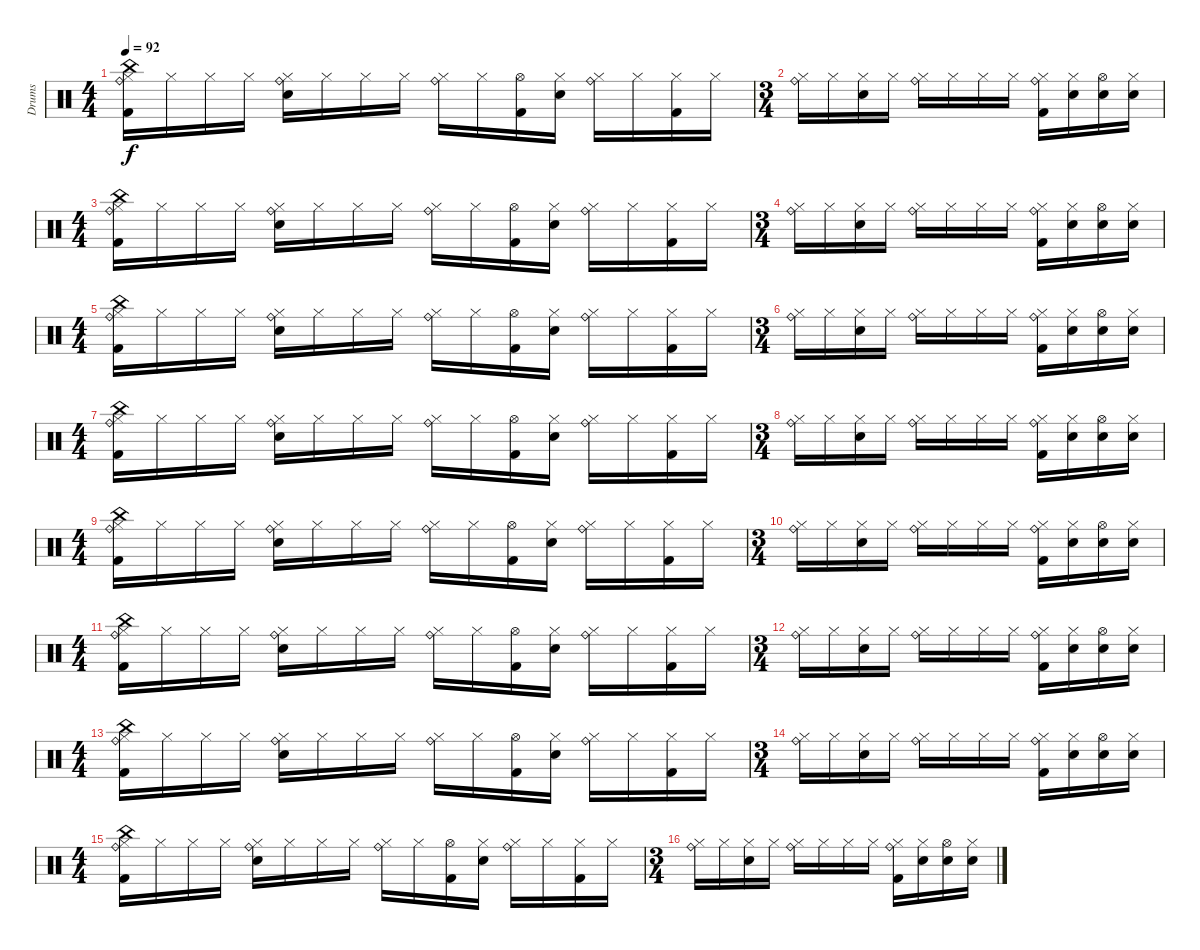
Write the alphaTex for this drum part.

\track ("Drums" "Drums") {instrument percussion}
\staff {score}
\articulation defaults
\ts (4 4)
\tempo 92
\clef neutral
\ks c
("Ride (bell)" "China (hit)" "Hi-Hat (closed)" "Kick (hit) 2").16{dy f} "Hi-Hat (closed)".16 "Hi-Hat (closed)".16 "Hi-Hat (closed)".16 ("Ride (bell)" "Hi-Hat (closed)" "Snare (hit) 2").16 "Hi-Hat (closed)".16 "Hi-Hat (closed)".16 "Hi-Hat (closed)".16 ("Ride (bell)" "Hi-Hat (closed)").16 "Hi-Hat (closed)".16 ("Hi-Hat (open)" "Kick (hit) 2").16 ("Hi-Hat (closed)" "Snare (hit) 2").16 ("Ride (bell)" "Hi-Hat (closed)").16 "Hi-Hat (closed)".16 ("Hi-Hat (closed)" "Kick (hit) 2").16 "Hi-Hat (closed)".16 |
\ts (3 4)
("Ride (bell)" "Hi-Hat (closed)").16 "Hi-Hat (closed)".16 ("Hi-Hat (closed)" "Snare (hit) 2").16 "Hi-Hat (closed)".16 ("Ride (bell)" "Hi-Hat (closed)").16 "Hi-Hat (closed)".16 "Hi-Hat (closed)".16 "Hi-Hat (closed)".16 ("Ride (bell)" "Hi-Hat (closed)" "Kick (hit) 2").16 ("Hi-Hat (closed)" "Snare (hit) 2").16 ("Hi-Hat (open)" "Snare (hit) 2").16 ("Hi-Hat (closed)" "Snare (hit) 2").16 |
\ts (4 4)
("Ride (bell)" "China (hit)" "Hi-Hat (closed)" "Kick (hit) 2").16 "Hi-Hat (closed)".16 "Hi-Hat (closed)".16 "Hi-Hat (closed)".16 ("Ride (bell)" "Hi-Hat (closed)" "Snare (hit) 2").16 "Hi-Hat (closed)".16 "Hi-Hat (closed)".16 "Hi-Hat (closed)".16 ("Ride (bell)" "Hi-Hat (closed)").16 "Hi-Hat (closed)".16 ("Hi-Hat (open)" "Kick (hit) 2").16 ("Hi-Hat (closed)" "Snare (hit) 2").16 ("Ride (bell)" "Hi-Hat (closed)").16 "Hi-Hat (closed)".16 ("Hi-Hat (closed)" "Kick (hit) 2").16 "Hi-Hat (closed)".16 |
\ts (3 4)
("Ride (bell)" "Hi-Hat (closed)").16 "Hi-Hat (closed)".16 ("Hi-Hat (closed)" "Snare (hit) 2").16 "Hi-Hat (closed)".16 ("Ride (bell)" "Hi-Hat (closed)").16 "Hi-Hat (closed)".16 "Hi-Hat (closed)".16 "Hi-Hat (closed)".16 ("Ride (bell)" "Hi-Hat (closed)" "Kick (hit) 2").16 ("Hi-Hat (closed)" "Snare (hit) 2").16 ("Hi-Hat (open)" "Snare (hit) 2").16 ("Hi-Hat (closed)" "Snare (hit) 2").16 |
\ts (4 4)
("Ride (bell)" "China (hit)" "Hi-Hat (closed)" "Kick (hit) 2").16 "Hi-Hat (closed)".16 "Hi-Hat (closed)".16 "Hi-Hat (closed)".16 ("Ride (bell)" "Hi-Hat (closed)" "Snare (hit) 2").16 "Hi-Hat (closed)".16 "Hi-Hat (closed)".16 "Hi-Hat (closed)".16 ("Ride (bell)" "Hi-Hat (closed)").16 "Hi-Hat (closed)".16 ("Hi-Hat (open)" "Kick (hit) 2").16 ("Hi-Hat (closed)" "Snare (hit) 2").16 ("Ride (bell)" "Hi-Hat (closed)").16 "Hi-Hat (closed)".16 ("Hi-Hat (closed)" "Kick (hit) 2").16 "Hi-Hat (closed)".16 |
\ts (3 4)
("Ride (bell)" "Hi-Hat (closed)").16 "Hi-Hat (closed)".16 ("Hi-Hat (closed)" "Snare (hit) 2").16 "Hi-Hat (closed)".16 ("Ride (bell)" "Hi-Hat (closed)").16 "Hi-Hat (closed)".16 "Hi-Hat (closed)".16 "Hi-Hat (closed)".16 ("Ride (bell)" "Hi-Hat (closed)" "Kick (hit) 2").16 ("Hi-Hat (closed)" "Snare (hit) 2").16 ("Hi-Hat (open)" "Snare (hit) 2").16 ("Hi-Hat (closed)" "Snare (hit) 2").16 |
\ts (4 4)
("Ride (bell)" "China (hit)" "Hi-Hat (closed)" "Kick (hit) 2").16 "Hi-Hat (closed)".16 "Hi-Hat (closed)".16 "Hi-Hat (closed)".16 ("Ride (bell)" "Hi-Hat (closed)" "Snare (hit) 2").16 "Hi-Hat (closed)".16 "Hi-Hat (closed)".16 "Hi-Hat (closed)".16 ("Ride (bell)" "Hi-Hat (closed)").16 "Hi-Hat (closed)".16 ("Hi-Hat (open)" "Kick (hit) 2").16 ("Hi-Hat (closed)" "Snare (hit) 2").16 ("Ride (bell)" "Hi-Hat (closed)").16 "Hi-Hat (closed)".16 ("Hi-Hat (closed)" "Kick (hit) 2").16 "Hi-Hat (closed)".16 |
\ts (3 4)
("Ride (bell)" "Hi-Hat (closed)").16 "Hi-Hat (closed)".16 ("Hi-Hat (closed)" "Snare (hit) 2").16 "Hi-Hat (closed)".16 ("Ride (bell)" "Hi-Hat (closed)").16 "Hi-Hat (closed)".16 "Hi-Hat (closed)".16 "Hi-Hat (closed)".16 ("Ride (bell)" "Hi-Hat (closed)" "Kick (hit) 2").16 ("Hi-Hat (closed)" "Snare (hit) 2").16 ("Hi-Hat (open)" "Snare (hit) 2").16 ("Hi-Hat (closed)" "Snare (hit) 2").16 |
\ts (4 4)
("Ride (bell)" "China (hit)" "Hi-Hat (closed)" "Kick (hit) 2").16 "Hi-Hat (closed)".16 "Hi-Hat (closed)".16 "Hi-Hat (closed)".16 ("Ride (bell)" "Hi-Hat (closed)" "Snare (hit) 2").16 "Hi-Hat (closed)".16 "Hi-Hat (closed)".16 "Hi-Hat (closed)".16 ("Ride (bell)" "Hi-Hat (closed)").16 "Hi-Hat (closed)".16 ("Hi-Hat (open)" "Kick (hit) 2").16 ("Hi-Hat (closed)" "Snare (hit) 2").16 ("Ride (bell)" "Hi-Hat (closed)").16 "Hi-Hat (closed)".16 ("Hi-Hat (closed)" "Kick (hit) 2").16 "Hi-Hat (closed)".16 |
\ts (3 4)
("Ride (bell)" "Hi-Hat (closed)").16 "Hi-Hat (closed)".16 ("Hi-Hat (closed)" "Snare (hit) 2").16 "Hi-Hat (closed)".16 ("Ride (bell)" "Hi-Hat (closed)").16 "Hi-Hat (closed)".16 "Hi-Hat (closed)".16 "Hi-Hat (closed)".16 ("Ride (bell)" "Hi-Hat (closed)" "Kick (hit) 2").16 ("Hi-Hat (closed)" "Snare (hit) 2").16 ("Hi-Hat (open)" "Snare (hit) 2").16 ("Hi-Hat (closed)" "Snare (hit) 2").16 |
\ts (4 4)
("Ride (bell)" "China (hit)" "Hi-Hat (closed)" "Kick (hit) 2").16 "Hi-Hat (closed)".16 "Hi-Hat (closed)".16 "Hi-Hat (closed)".16 ("Ride (bell)" "Hi-Hat (closed)" "Snare (hit) 2").16 "Hi-Hat (closed)".16 "Hi-Hat (closed)".16 "Hi-Hat (closed)".16 ("Ride (bell)" "Hi-Hat (closed)").16 "Hi-Hat (closed)".16 ("Hi-Hat (open)" "Kick (hit) 2").16 ("Hi-Hat (closed)" "Snare (hit) 2").16 ("Ride (bell)" "Hi-Hat (closed)").16 "Hi-Hat (closed)".16 ("Hi-Hat (closed)" "Kick (hit) 2").16 "Hi-Hat (closed)".16 |
\ts (3 4)
("Ride (bell)" "Hi-Hat (closed)").16 "Hi-Hat (closed)".16 ("Hi-Hat (closed)" "Snare (hit) 2").16 "Hi-Hat (closed)".16 ("Ride (bell)" "Hi-Hat (closed)").16 "Hi-Hat (closed)".16 "Hi-Hat (closed)".16 "Hi-Hat (closed)".16 ("Ride (bell)" "Hi-Hat (closed)" "Kick (hit) 2").16 ("Hi-Hat (closed)" "Snare (hit) 2").16 ("Hi-Hat (open)" "Snare (hit) 2").16 ("Hi-Hat (closed)" "Snare (hit) 2").16 |
\ts (4 4)
("Ride (bell)" "China (hit)" "Hi-Hat (closed)" "Kick (hit) 2").16 "Hi-Hat (closed)".16 "Hi-Hat (closed)".16 "Hi-Hat (closed)".16 ("Ride (bell)" "Hi-Hat (closed)" "Snare (hit) 2").16 "Hi-Hat (closed)".16 "Hi-Hat (closed)".16 "Hi-Hat (closed)".16 ("Ride (bell)" "Hi-Hat (closed)").16 "Hi-Hat (closed)".16 ("Hi-Hat (open)" "Kick (hit) 2").16 ("Hi-Hat (closed)" "Snare (hit) 2").16 ("Ride (bell)" "Hi-Hat (closed)").16 "Hi-Hat (closed)".16 ("Hi-Hat (closed)" "Kick (hit) 2").16 "Hi-Hat (closed)".16 |
\ts (3 4)
("Ride (bell)" "Hi-Hat (closed)").16 "Hi-Hat (closed)".16 ("Hi-Hat (closed)" "Snare (hit) 2").16 "Hi-Hat (closed)".16 ("Ride (bell)" "Hi-Hat (closed)").16 "Hi-Hat (closed)".16 "Hi-Hat (closed)".16 "Hi-Hat (closed)".16 ("Ride (bell)" "Hi-Hat (closed)" "Kick (hit) 2").16 ("Hi-Hat (closed)" "Snare (hit) 2").16 ("Hi-Hat (open)" "Snare (hit) 2").16 ("Hi-Hat (closed)" "Snare (hit) 2").16 |
\ts (4 4)
("Ride (bell)" "China (hit)" "Hi-Hat (closed)" "Kick (hit) 2").16 "Hi-Hat (closed)".16 "Hi-Hat (closed)".16 "Hi-Hat (closed)".16 ("Ride (bell)" "Hi-Hat (closed)" "Snare (hit) 2").16 "Hi-Hat (closed)".16 "Hi-Hat (closed)".16 "Hi-Hat (closed)".16 ("Ride (bell)" "Hi-Hat (closed)").16 "Hi-Hat (closed)".16 ("Hi-Hat (open)" "Kick (hit) 2").16 ("Hi-Hat (closed)" "Snare (hit) 2").16 ("Ride (bell)" "Hi-Hat (closed)").16 "Hi-Hat (closed)".16 ("Hi-Hat (closed)" "Kick (hit) 2").16 "Hi-Hat (closed)".16 |
\ts (3 4)
("Ride (bell)" "Hi-Hat (closed)").16 "Hi-Hat (closed)".16 ("Hi-Hat (closed)" "Snare (hit) 2").16 "Hi-Hat (closed)".16 ("Ride (bell)" "Hi-Hat (closed)").16 "Hi-Hat (closed)".16 "Hi-Hat (closed)".16 "Hi-Hat (closed)".16 ("Ride (bell)" "Hi-Hat (closed)" "Kick (hit) 2").16 ("Hi-Hat (closed)" "Snare (hit) 2").16 ("Hi-Hat (open)" "Snare (hit) 2").16 ("Hi-Hat (closed)" "Snare (hit) 2").16
